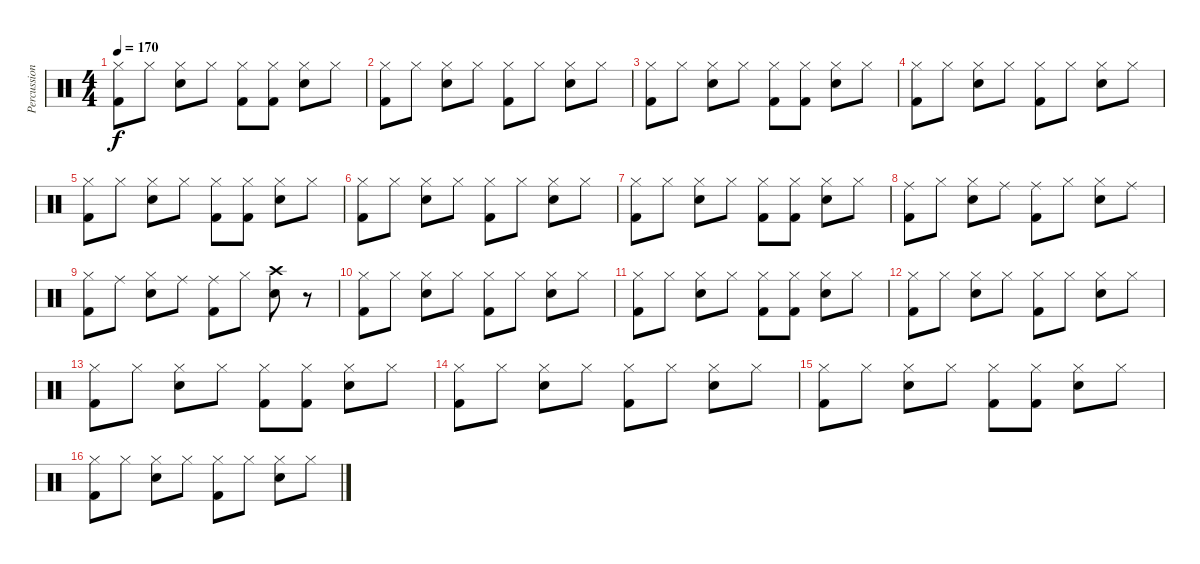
\track ("Percussion" "Percussion") {instrument percussion}
\staff {score}
\articulation defaults
\ts (4 4)
\tempo 170
\clef neutral
\ks c
("Hi-Hat (closed)" "Kick (hit) 2").8{dy f} "Hi-Hat (closed)".8 ("Hi-Hat (closed)" "Snare (hit) 2").8 "Hi-Hat (closed)".8 ("Hi-Hat (closed)" "Kick (hit) 2").8 ("Hi-Hat (closed)" "Kick (hit) 2").8 ("Hi-Hat (closed)" "Snare (hit) 2").8 "Hi-Hat (closed)".8 |
("Hi-Hat (closed)" "Kick (hit) 2").8 "Hi-Hat (closed)".8 ("Hi-Hat (closed)" "Snare (hit) 2").8 "Hi-Hat (closed)".8 ("Hi-Hat (closed)" "Kick (hit) 2").8 "Hi-Hat (closed)".8 ("Hi-Hat (closed)" "Snare (hit) 2").8 "Hi-Hat (closed)".8 |
("Hi-Hat (closed)" "Kick (hit) 2").8 "Hi-Hat (closed)".8 ("Hi-Hat (closed)" "Snare (hit) 2").8 "Hi-Hat (closed)".8 ("Hi-Hat (closed)" "Kick (hit) 2").8 ("Hi-Hat (closed)" "Kick (hit) 2").8 ("Hi-Hat (closed)" "Snare (hit) 2").8 "Hi-Hat (closed)".8 |
("Hi-Hat (closed)" "Kick (hit) 2").8 "Hi-Hat (closed)".8 ("Hi-Hat (closed)" "Snare (hit) 2").8 "Hi-Hat (closed)".8 ("Hi-Hat (closed)" "Kick (hit) 2").8 "Hi-Hat (closed)".8 ("Hi-Hat (closed)" "Snare (hit) 2").8 "Hi-Hat (closed)".8 |
("Hi-Hat (closed)" "Kick (hit) 2").8 "Hi-Hat (closed)".8 ("Hi-Hat (closed)" "Snare (hit) 2").8 "Hi-Hat (closed)".8 ("Hi-Hat (closed)" "Kick (hit) 2").8 ("Hi-Hat (closed)" "Kick (hit) 2").8 ("Hi-Hat (closed)" "Snare (hit) 2").8 "Hi-Hat (closed)".8 |
("Hi-Hat (closed)" "Kick (hit) 2").8 "Hi-Hat (closed)".8 ("Hi-Hat (closed)" "Snare (hit) 2").8 "Hi-Hat (closed)".8 ("Hi-Hat (closed)" "Kick (hit) 2").8 "Hi-Hat (closed)".8 ("Hi-Hat (closed)" "Snare (hit) 2").8 "Hi-Hat (closed)".8 |
("Hi-Hat (closed)" "Kick (hit) 2").8 "Hi-Hat (closed)".8 ("Hi-Hat (closed)" "Snare (hit) 2").8 "Hi-Hat (closed)".8 ("Hi-Hat (closed)" "Kick (hit) 2").8 ("Hi-Hat (closed)" "Kick (hit) 2").8 ("Hi-Hat (closed)" "Snare (hit) 2").8 "Hi-Hat (closed)".8 |
("Ride (middle)" "Kick (hit) 2").8 "Hi-Hat (closed)".8 ("Hi-Hat (closed)" "Snare (hit) 2").8 "Ride (middle)".8 ("Ride (middle)" "Kick (hit) 2").8 "Hi-Hat (closed)".8 ("Hi-Hat (closed)" "Snare (hit) 2").8 "Ride (middle)".8 |
("Hi-Hat (closed)" "Kick (hit) 2").8 "Ride (middle)".8 ("Hi-Hat (closed)" "Snare (hit) 2").8 "Ride (middle)".8 ("Ride (middle)" "Kick (hit) 2").8 "Hi-Hat (closed)".8 ("Crash high (hit)" "Snare (hit) 2").8 r.8 |
("Hi-Hat (closed)" "Kick (hit) 2").8 "Hi-Hat (closed)".8 ("Hi-Hat (closed)" "Snare (hit) 2").8 "Hi-Hat (closed)".8 ("Hi-Hat (closed)" "Kick (hit) 2").8 "Hi-Hat (closed)".8 ("Hi-Hat (closed)" "Snare (hit) 2").8 "Hi-Hat (closed)".8 |
("Hi-Hat (closed)" "Kick (hit) 2").8 "Hi-Hat (closed)".8 ("Hi-Hat (closed)" "Snare (hit) 2").8 "Hi-Hat (closed)".8 ("Hi-Hat (closed)" "Kick (hit) 2").8 ("Hi-Hat (closed)" "Kick (hit) 2").8 ("Hi-Hat (closed)" "Snare (hit) 2").8 "Hi-Hat (closed)".8 |
("Hi-Hat (closed)" "Kick (hit) 2").8 "Hi-Hat (closed)".8 ("Hi-Hat (closed)" "Snare (hit) 2").8 "Hi-Hat (closed)".8 ("Hi-Hat (closed)" "Kick (hit) 2").8 "Hi-Hat (closed)".8 ("Hi-Hat (closed)" "Snare (hit) 2").8 "Hi-Hat (closed)".8 |
("Hi-Hat (closed)" "Kick (hit) 2").8 "Hi-Hat (closed)".8 ("Hi-Hat (closed)" "Snare (hit) 2").8 "Hi-Hat (closed)".8 ("Hi-Hat (closed)" "Kick (hit) 2").8 ("Hi-Hat (closed)" "Kick (hit) 2").8 ("Hi-Hat (closed)" "Snare (hit) 2").8 "Hi-Hat (closed)".8 |
("Hi-Hat (closed)" "Kick (hit) 2").8 "Hi-Hat (closed)".8 ("Hi-Hat (closed)" "Snare (hit) 2").8 "Hi-Hat (closed)".8 ("Hi-Hat (closed)" "Kick (hit) 2").8 "Hi-Hat (closed)".8 ("Hi-Hat (closed)" "Snare (hit) 2").8 "Hi-Hat (closed)".8 |
("Hi-Hat (closed)" "Kick (hit) 2").8 "Hi-Hat (closed)".8 ("Hi-Hat (closed)" "Snare (hit) 2").8 "Hi-Hat (closed)".8 ("Hi-Hat (closed)" "Kick (hit) 2").8 ("Hi-Hat (closed)" "Kick (hit) 2").8 ("Hi-Hat (closed)" "Snare (hit) 2").8 "Hi-Hat (closed)".8 |
("Hi-Hat (closed)" "Kick (hit) 2").8 "Hi-Hat (closed)".8 ("Hi-Hat (closed)" "Snare (hit) 2").8 "Hi-Hat (closed)".8 ("Hi-Hat (closed)" "Kick (hit) 2").8 "Hi-Hat (closed)".8 ("Hi-Hat (closed)" "Snare (hit) 2").8 "Hi-Hat (closed)".8
